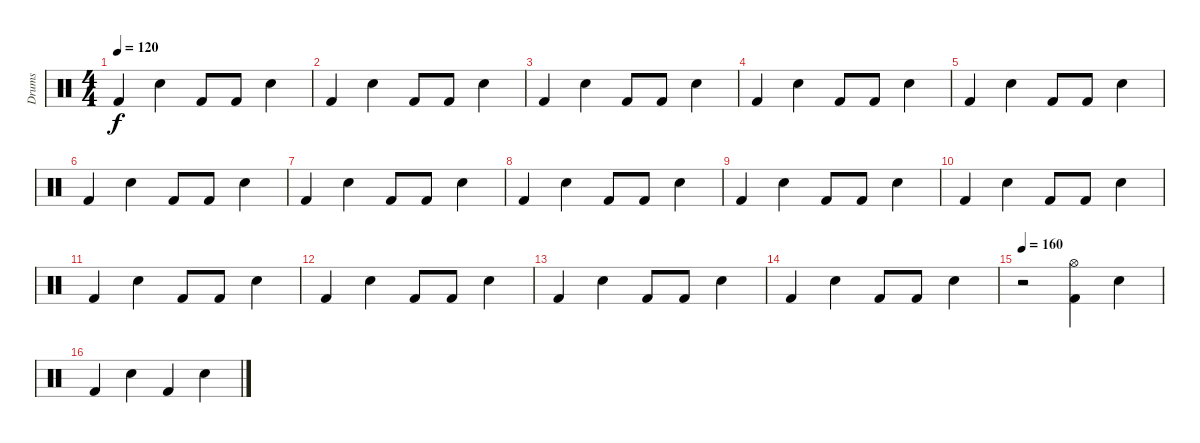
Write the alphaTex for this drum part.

\track ("Drums" "Drums") {instrument percussion}
\staff {score}
\articulation defaults
\ts (4 4)
\tempo 120
\clef neutral
\ks c "Kick (hit) 2".4{dy f} "Snare (hit) 2".4 "Kick (hit) 2".8 "Kick (hit) 2".8 "Snare (hit) 2".4
|
"Kick (hit) 2".4 "Snare (hit) 2".4 "Kick (hit) 2".8 "Kick (hit) 2".8 "Snare (hit) 2".4 |
"Kick (hit) 2".4 "Snare (hit) 2".4 "Kick (hit) 2".8 "Kick (hit) 2".8 "Snare (hit) 2".4 |
"Kick (hit) 2".4 "Snare (hit) 2".4 "Kick (hit) 2".8 "Kick (hit) 2".8 "Snare (hit) 2".4 |
"Kick (hit) 2".4 "Snare (hit) 2".4 "Kick (hit) 2".8 "Kick (hit) 2".8 "Snare (hit) 2".4 |
"Kick (hit) 2".4 "Snare (hit) 2".4 "Kick (hit) 2".8 "Kick (hit) 2".8 "Snare (hit) 2".4 |
"Kick (hit) 2".4 "Snare (hit) 2".4 "Kick (hit) 2".8 "Kick (hit) 2".8 "Snare (hit) 2".4 |
"Kick (hit) 2".4 "Snare (hit) 2".4 "Kick (hit) 2".8 "Kick (hit) 2".8 "Snare (hit) 2".4 |
"Kick (hit) 2".4 "Snare (hit) 2".4 "Kick (hit) 2".8 "Kick (hit) 2".8 "Snare (hit) 2".4 |
"Kick (hit) 2".4 "Snare (hit) 2".4 "Kick (hit) 2".8 "Kick (hit) 2".8 "Snare (hit) 2".4 |
"Kick (hit) 2".4 "Snare (hit) 2".4 "Kick (hit) 2".8 "Kick (hit) 2".8 "Snare (hit) 2".4 |
"Kick (hit) 2".4 "Snare (hit) 2".4 "Kick (hit) 2".8 "Kick (hit) 2".8 "Snare (hit) 2".4 |
"Kick (hit) 2".4 "Snare (hit) 2".4 "Kick (hit) 2".8 "Kick (hit) 2".8 "Snare (hit) 2".4 |
"Kick (hit) 2".4 "Snare (hit) 2".4 "Kick (hit) 2".8 "Kick (hit) 2".8 "Snare (hit) 2".4 |
\tempo 160
r.2 ("Kick (hit) 2" "Hi-Hat (open)").4 "Snare (hit) 2".4 |
"Kick (hit) 2".4 "Snare (hit) 2".4 "Kick (hit) 2".4 "Snare (hit) 2".4
